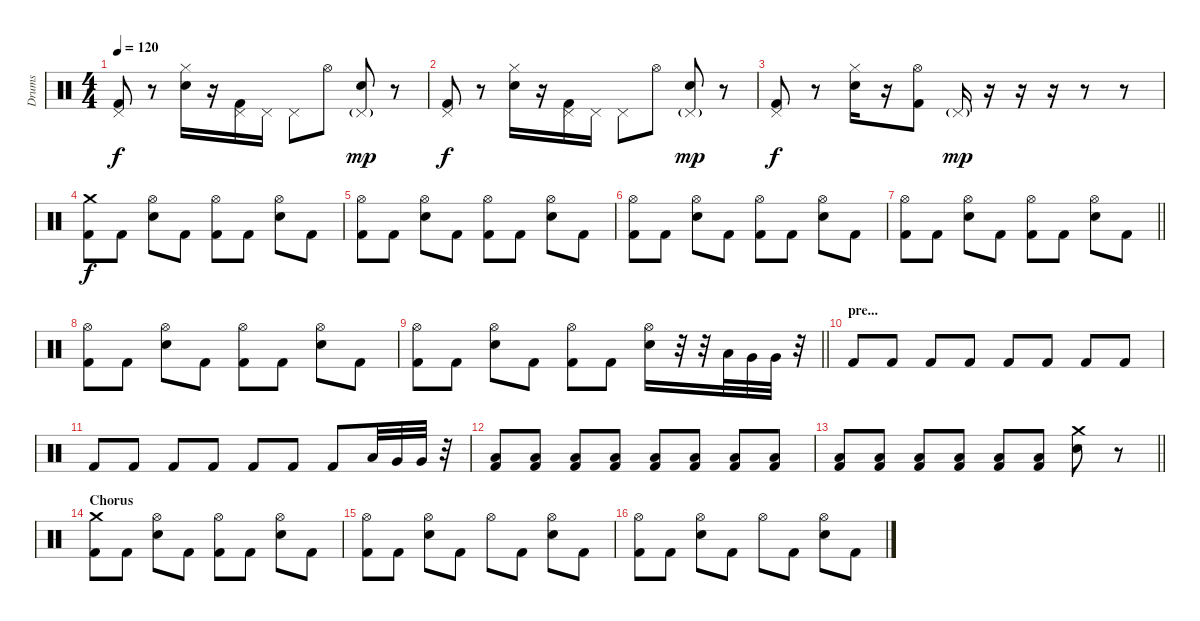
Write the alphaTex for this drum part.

\track ("Drums" "Drums") {instrument percussion}
\staff {score}
\articulation defaults
\ts (4 4)
\tempo 120
\clef neutral
\ks c
("Pedal Hi-Hat (hit)" "Kick (hit) 2").8{dy f} r.8 ("Hi-Hat (closed)" "Electric Snare (hit)").16 r.16 ("Pedal Hi-Hat (hit)" "Kick (hit) 2").16 "Pedal Hi-Hat (hit)".16 "Pedal Hi-Hat (hit)".8 "Hi-Hat (open)".8 ("Pedal Hi-Hat (hit)"{g} "Electric Snare (hit)").8{dy mp} r.8 |
("Pedal Hi-Hat (hit)" "Kick (hit) 2").8{dy f} r.8 ("Hi-Hat (closed)" "Electric Snare (hit)").16 r.16 ("Pedal Hi-Hat (hit)" "Kick (hit) 2").16 "Pedal Hi-Hat (hit)".16 "Pedal Hi-Hat (hit)".8 "Hi-Hat (open)".8 ("Pedal Hi-Hat (hit)"{g} "Electric Snare (hit)").8{dy mp} r.8 |
("Pedal Hi-Hat (hit)" "Kick (hit) 2").8{dy f} r.8 ("Hi-Hat (closed)" "Electric Snare (hit)").16 r.16 ("Hi-Hat (open)" "Kick (hit) 2").8 "Pedal Hi-Hat (hit)"{g}.16{dy mp} r.16 r.16 r.16 r.8 r.8 |
("Crash medium (hit)" "Kick (hit) 2").8{dy f} "Kick (hit) 2".8 ("Hi-Hat (open)" "Electric Snare (hit)").8 "Kick (hit) 2".8 ("Hi-Hat (open)" "Kick (hit) 2").8 "Kick (hit) 2".8 ("Hi-Hat (open)" "Electric Snare (hit)").8 "Kick (hit) 2".8 |
("Hi-Hat (open)" "Kick (hit) 2").8 "Kick (hit) 2".8 ("Hi-Hat (open)" "Electric Snare (hit)").8 "Kick (hit) 2".8 ("Hi-Hat (open)" "Kick (hit) 2").8 "Kick (hit) 2".8 ("Hi-Hat (open)" "Electric Snare (hit)").8 "Kick (hit) 2".8 |
("Hi-Hat (open)" "Kick (hit) 2").8 "Kick (hit) 2".8 ("Hi-Hat (open)" "Electric Snare (hit)").8 "Kick (hit) 2".8 ("Hi-Hat (open)" "Kick (hit) 2").8 "Kick (hit) 2".8 ("Hi-Hat (open)" "Electric Snare (hit)").8 "Kick (hit) 2".8 |
\barLineRight lightlight
("Hi-Hat (open)" "Kick (hit) 2").8 "Kick (hit) 2".8 ("Hi-Hat (open)" "Electric Snare (hit)").8 "Kick (hit) 2".8 ("Hi-Hat (open)" "Kick (hit) 2").8 "Kick (hit) 2".8 ("Hi-Hat (open)" "Electric Snare (hit)").8 "Kick (hit) 2".8 |
("Hi-Hat (open)" "Kick (hit) 2").8 "Kick (hit) 2".8 ("Hi-Hat (open)" "Electric Snare (hit)").8 "Kick (hit) 2".8 ("Hi-Hat (open)" "Kick (hit) 2").8 "Kick (hit) 2".8 ("Hi-Hat (open)" "Electric Snare (hit)").8 "Kick (hit) 2".8 |
\barLineRight lightlight
("Hi-Hat (open)" "Kick (hit) 2").8 "Kick (hit) 2".8 ("Hi-Hat (open)" "Electric Snare (hit)").8 "Kick (hit) 2".8 ("Hi-Hat (open)" "Kick (hit) 2").8 "Kick (hit) 2".8 ("Hi-Hat (open)" "Electric Snare (hit)").16 r.32 r.32 "Low Tom (hit)".32 "Very Low Tom (hit)".32 "Very Low Tom (hit)".32 r.32 |
\section ("" "pre...")
"Kick (hit) 2".8{balance 8} "Kick (hit) 2".8 "Kick (hit) 2".8 "Kick (hit) 2".8 "Kick (hit) 2".8 "Kick (hit) 2".8 "Kick (hit) 2".8 "Kick (hit) 2".8 |
"Kick (hit) 2".8 "Kick (hit) 2".8 "Kick (hit) 2".8 "Kick (hit) 2".8 "Kick (hit) 2".8 "Kick (hit) 2".8 "Kick (hit) 2".8 "Low Tom (hit)".32 "Very Low Tom (hit)".32 "Very Low Tom (hit)".32 r.32 |
("Low Floor Tom (hit)" "Kick (hit) 2").8 ("Low Floor Tom (hit)" "Kick (hit) 2").8 ("Low Floor Tom (hit)" "Kick (hit) 2").8 ("Low Floor Tom (hit)" "Kick (hit) 2").8 ("Low Floor Tom (hit)" "Kick (hit) 2").8 ("Low Floor Tom (hit)" "Kick (hit) 2").8 ("Low Floor Tom (hit)" "Kick (hit) 2").8 ("Low Floor Tom (hit)" "Kick (hit) 2").8 |
\barLineRight lightlight
("Low Floor Tom (hit)" "Kick (hit) 2").8 ("Low Floor Tom (hit)" "Kick (hit) 2").8 ("Low Floor Tom (hit)" "Kick (hit) 2").8 ("Low Floor Tom (hit)" "Kick (hit) 2").8 ("Low Floor Tom (hit)" "Kick (hit) 2").8 ("Low Floor Tom (hit)" "Kick (hit) 2").8 ("Crash medium (hit)" "Electric Snare (hit)").8 r.8 |
\section ("" "Chorus")
("Crash medium (hit)" "Kick (hit) 2").8 "Kick (hit) 2".8 ("Hi-Hat (open)" "Electric Snare (hit)").8 "Kick (hit) 2".8 ("Hi-Hat (open)" "Kick (hit) 2").8 "Kick (hit) 2".8 ("Hi-Hat (open)" "Electric Snare (hit)").8 "Kick (hit) 2".8 |
("Hi-Hat (open)" "Kick (hit) 2").8 "Kick (hit) 2".8 ("Hi-Hat (open)" "Electric Snare (hit)").8 "Kick (hit) 2".8 "Hi-Hat (open)".8 "Kick (hit) 2".8 ("Hi-Hat (open)" "Electric Snare (hit)").8 "Kick (hit) 2".8 |
("Hi-Hat (open)" "Kick (hit) 2").8 "Kick (hit) 2".8 ("Hi-Hat (open)" "Electric Snare (hit)").8 "Kick (hit) 2".8 "Hi-Hat (open)".8 "Kick (hit) 2".8 ("Hi-Hat (open)" "Electric Snare (hit)").8 "Kick (hit) 2".8
